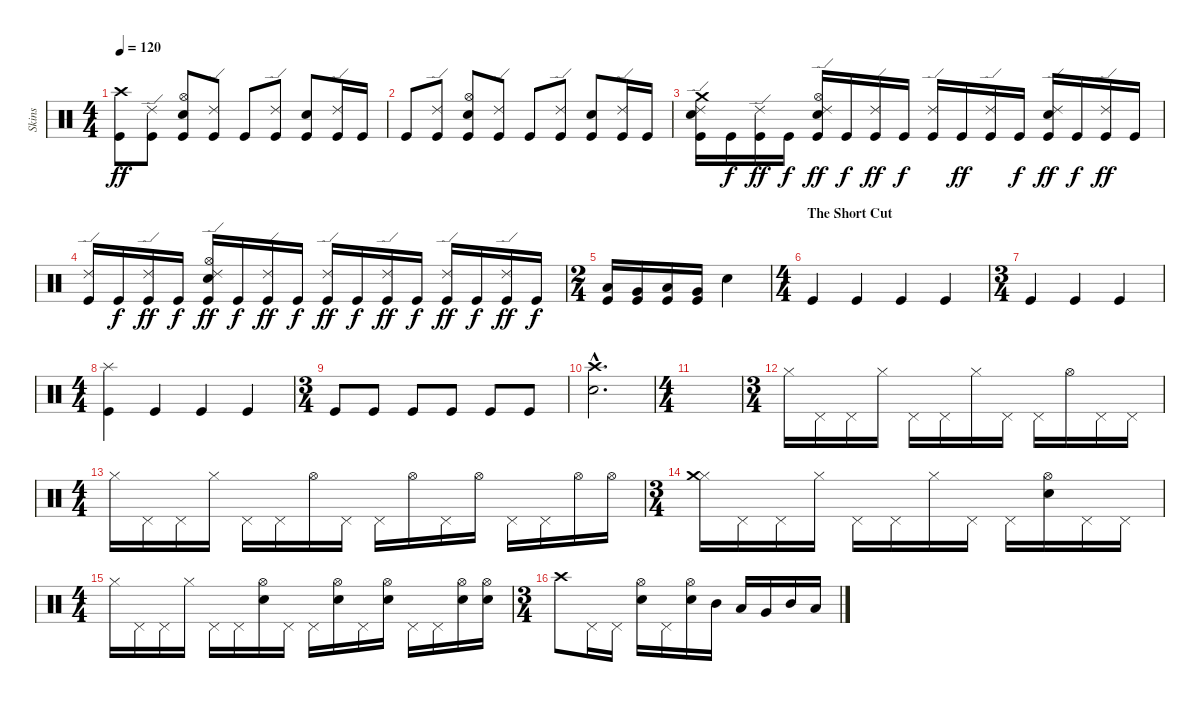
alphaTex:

\track ("Skins" "Skins") {instrument percussion}
\staff {score}
\articulation defaults
\ts (4 4)
\tempo 120
\clef neutral
\ks c
("Crash high (hit)" "Kick (hit)").8{dy ff} ("Ride (edge) 2" "Kick (hit)").8 ("Hi-Hat (open)" "Electric Snare (hit)" "Kick (hit)").8 ("Ride (edge) 2" "Kick (hit)").8 "Kick (hit)".8 ("Ride (edge) 2" "Kick (hit)").8 ("Snare (hit) 2" "Kick (hit)").8 ("Ride (edge) 2" "Kick (hit)").16 "Kick (hit)".16 |
"Kick (hit)".8 ("Ride (edge) 2" "Kick (hit)").8 ("Hi-Hat (open)" "Electric Snare (hit)" "Kick (hit)").8 ("Ride (edge) 2" "Kick (hit)").8 "Kick (hit)".8 ("Ride (edge) 2" "Kick (hit)").8 ("Snare (hit) 2" "Kick (hit)").8 ("Ride (edge) 2" "Kick (hit)").16 "Kick (hit)".16 |
("Crash medium (hit)" "Snare (hit) 2" "Ride (edge) 2" "Kick (hit)").16 "Kick (hit)".16{dy f} ("Ride (edge) 2" "Kick (hit)").16{dy ff} "Kick (hit)".16{dy f} ("Hi-Hat (open)" "Electric Snare (hit)" "Ride (edge) 2" "Kick (hit)").16{dy ff} "Kick (hit)".16{dy f} ("Ride (edge) 2" "Kick (hit)").16{dy ff} "Kick (hit)".16{dy f} ("Ride (edge) 2" "Kick (hit)").16 "Kick (hit)".16{dy ff} ("Ride (edge) 2" "Kick (hit)").16 "Kick (hit)".16{dy f} ("Snare (hit) 2" "Ride (edge) 2" "Kick (hit)").16{dy ff} "Kick (hit)".16{dy f} ("Ride (edge) 2" "Kick (hit)").16{dy ff} "Kick (hit)".16 |
("Ride (edge) 2" "Kick (hit)").16 "Kick (hit)".16{dy f} ("Ride (edge) 2" "Kick (hit)").16{dy ff} "Kick (hit)".16{dy f} ("Hi-Hat (open)" "Electric Snare (hit)" "Ride (edge) 2" "Kick (hit)").16{dy ff} "Kick (hit)".16{dy f} ("Ride (edge) 2" "Kick (hit)").16{dy ff} "Kick (hit)".16{dy f} ("Ride (edge) 2" "Kick (hit)").16{dy ff} "Kick (hit)".16{dy f} ("Ride (edge) 2" "Kick (hit)").16{dy ff} "Kick (hit)".16{dy f} ("Ride (edge) 2" "Kick (hit)").16{dy ff} "Kick (hit)".16{dy f} ("Ride (edge) 2" "Kick (hit)").16{dy ff} "Kick (hit)".16{dy f} |
\ts (2 4)
("Low Tom (hit)" "Kick (hit)").16 ("Very Low Tom (hit)" "Kick (hit)").16 ("Low Floor Tom (hit)" "Kick (hit)").16 ("Very Low Tom (hit)" "Kick (hit)").16 "Electric Snare (hit)".4 |
\ts (4 4)
\section ("" "The Short Cut")
"Kick (hit)".4 "Kick (hit)".4 "Kick (hit)".4 "Kick (hit)".4 |
\ts (3 4)
"Kick (hit)".4 "Kick (hit)".4 "Kick (hit)".4 |
\ts (4 4)
("Splash (hit)" "Kick (hit)").4 "Kick (hit)".4 "Kick (hit)".4 "Kick (hit)".4 |
\ts (3 4)
"Kick (hit)".8 "Kick (hit)".8 "Kick (hit)".8 "Kick (hit)".8 "Kick (hit)".8 "Kick (hit)".8 |
("Crash high (hit)"{hac} "Snare (hit) 2"{hac}).2{d} |
\ts (4 4)
|
\ts (3 4)
"Hi-Hat (closed)".16 "Pedal Hi-Hat (hit)".16 "Pedal Hi-Hat (hit)".16 "Hi-Hat (closed)".16 "Pedal Hi-Hat (hit)".16 "Pedal Hi-Hat (hit)".16 "Hi-Hat (closed)".16 "Pedal Hi-Hat (hit)".16 "Pedal Hi-Hat (hit)".16 "Hi-Hat (open)".16 "Pedal Hi-Hat (hit)".16 "Pedal Hi-Hat (hit)".16 |
\ts (4 4)
"Hi-Hat (closed)".16 "Pedal Hi-Hat (hit)".16 "Pedal Hi-Hat (hit)".16 "Hi-Hat (closed)".16 "Pedal Hi-Hat (hit)".16 "Pedal Hi-Hat (hit)".16 "Hi-Hat (open)".16 "Pedal Hi-Hat (hit)".16 "Pedal Hi-Hat (hit)".16 "Hi-Hat (open)".16 "Pedal Hi-Hat (hit)".16 "Hi-Hat (open)".16 "Pedal Hi-Hat (hit)".16 "Pedal Hi-Hat (hit)".16 "Hi-Hat (open)".16 "Hi-Hat (open)".16 |
\ts (3 4)
("Hi-Hat (closed)" "Crash medium (hit)").16 "Pedal Hi-Hat (hit)".16 "Pedal Hi-Hat (hit)".16 "Hi-Hat (closed)".16 "Pedal Hi-Hat (hit)".16 "Pedal Hi-Hat (hit)".16 "Hi-Hat (closed)".16 "Pedal Hi-Hat (hit)".16 "Pedal Hi-Hat (hit)".16 ("Hi-Hat (open)" "Snare (hit) 2").16 "Pedal Hi-Hat (hit)".16 "Pedal Hi-Hat (hit)".16 |
\ts (4 4)
"Hi-Hat (closed)".16 "Pedal Hi-Hat (hit)".16 "Pedal Hi-Hat (hit)".16 "Hi-Hat (closed)".16 "Pedal Hi-Hat (hit)".16 "Pedal Hi-Hat (hit)".16 ("Hi-Hat (open)" "Snare (hit) 2").16 "Pedal Hi-Hat (hit)".16 "Pedal Hi-Hat (hit)".16 ("Hi-Hat (open)" "Snare (hit) 2").16 "Pedal Hi-Hat (hit)".16 ("Hi-Hat (open)" "Snare (hit) 2").16 "Pedal Hi-Hat (hit)".16 "Pedal Hi-Hat (hit)".16 ("Hi-Hat (open)" "Snare (hit) 2").16 ("Hi-Hat (open)" "Snare (hit) 2").16 |
\ts (3 4)
"Crash high (hit)".8 "Pedal Hi-Hat (hit)".16 "Pedal Hi-Hat (hit)".16 ("Hi-Hat (open)" "Snare (hit) 2").16 "Pedal Hi-Hat (hit)".16 ("Hi-Hat (open)" "Snare (hit) 2").16 "Mid Tom (hit)".16 "Low Tom (hit)".16 "Very Low Tom (hit)".16 "Mid Tom (hit)".16 "Low Tom (hit)".16
